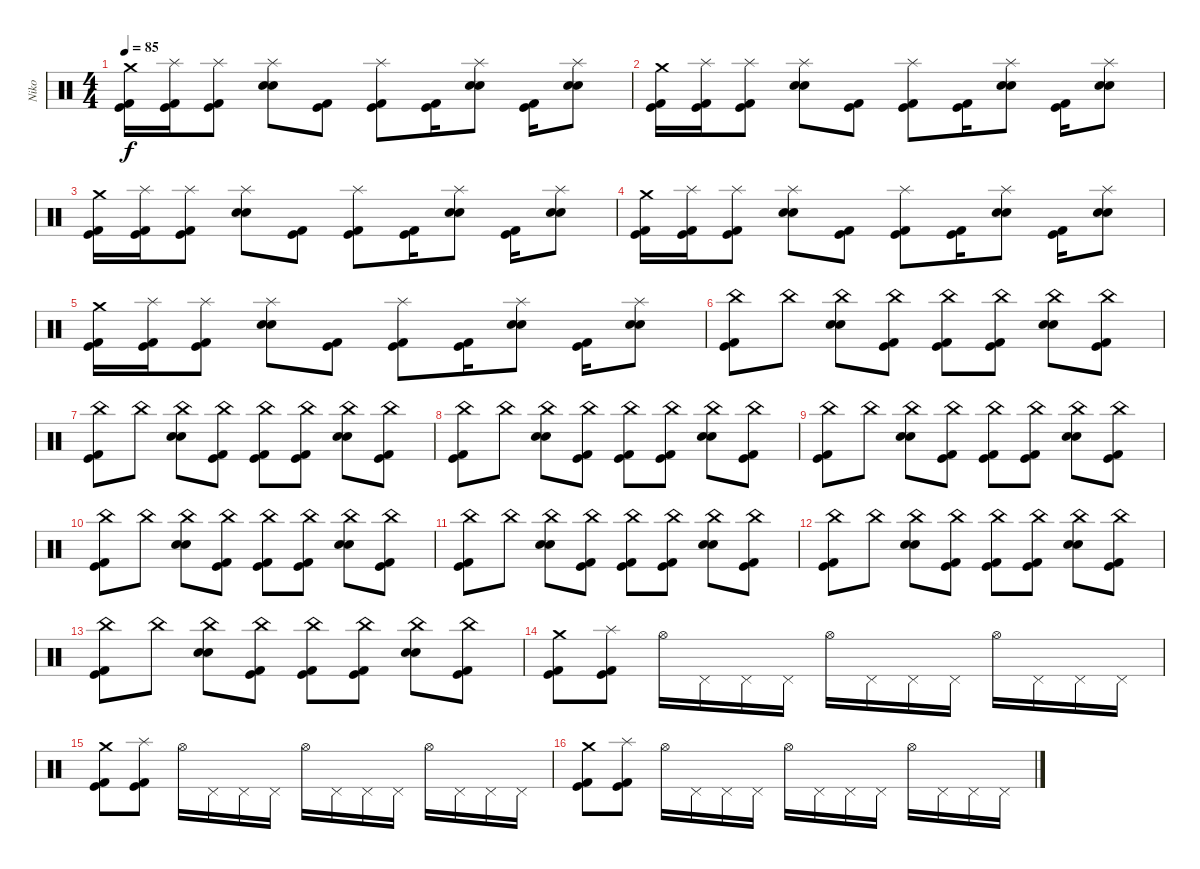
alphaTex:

\track ("Niko" "Niko") {instrument percussion}
\staff {score}
\articulation defaults
\ts (4 4)
\tempo 85
\clef neutral
\ks c
("Crash medium (hit)" "Kick (hit) 2" "Kick (hit)").16{dy f} ("Splash (hit)" "Kick (hit)" "Kick (hit) 2").16 ("Splash (hit)" "Kick (hit) 2" "Kick (hit)").8 ("Splash (hit)" "Electric Snare (hit)" "Electric Snare (hit)").8 ("Kick (hit) 2" "Kick (hit)").8 ("Splash (hit)" "Kick (hit)" "Kick (hit) 2").8 ("Kick (hit) 2" "Kick (hit)").16 ("Splash (hit)" "Electric Snare (hit)" "Electric Snare (hit)").8 ("Kick (hit) 2" "Kick (hit)").16 ("Splash (hit)" "Electric Snare (hit)" "Electric Snare (hit)").8 |
("Crash medium (hit)" "Kick (hit) 2" "Kick (hit)").16 ("Splash (hit)" "Kick (hit)" "Kick (hit) 2").16 ("Splash (hit)" "Kick (hit) 2" "Kick (hit)").8 ("Splash (hit)" "Electric Snare (hit)" "Electric Snare (hit)").8 ("Kick (hit) 2" "Kick (hit)").8 ("Splash (hit)" "Kick (hit)" "Kick (hit) 2").8 ("Kick (hit) 2" "Kick (hit)").16 ("Splash (hit)" "Electric Snare (hit)" "Electric Snare (hit)").8 ("Kick (hit) 2" "Kick (hit)").16 ("Splash (hit)" "Electric Snare (hit)" "Electric Snare (hit)").8 |
("Crash medium (hit)" "Kick (hit) 2" "Kick (hit)").16 ("Splash (hit)" "Kick (hit)" "Kick (hit) 2").16 ("Splash (hit)" "Kick (hit) 2" "Kick (hit)").8 ("Splash (hit)" "Electric Snare (hit)" "Electric Snare (hit)").8 ("Kick (hit) 2" "Kick (hit)").8 ("Splash (hit)" "Kick (hit)" "Kick (hit) 2").8 ("Kick (hit) 2" "Kick (hit)").16 ("Splash (hit)" "Electric Snare (hit)" "Electric Snare (hit)").8 ("Kick (hit) 2" "Kick (hit)").16 ("Splash (hit)" "Electric Snare (hit)" "Electric Snare (hit)").8 |
("Crash medium (hit)" "Kick (hit) 2" "Kick (hit)").16 ("Splash (hit)" "Kick (hit)" "Kick (hit) 2").16 ("Splash (hit)" "Kick (hit) 2" "Kick (hit)").8 ("Splash (hit)" "Electric Snare (hit)" "Electric Snare (hit)").8 ("Kick (hit) 2" "Kick (hit)").8 ("Splash (hit)" "Kick (hit)" "Kick (hit) 2").8 ("Kick (hit) 2" "Kick (hit)").16 ("Splash (hit)" "Electric Snare (hit)" "Electric Snare (hit)").8 ("Kick (hit) 2" "Kick (hit)").16 ("Splash (hit)" "Electric Snare (hit)" "Electric Snare (hit)").8 |
("Crash medium (hit)" "Kick (hit) 2" "Kick (hit)").16 ("Splash (hit)" "Kick (hit)" "Kick (hit) 2").16 ("Splash (hit)" "Kick (hit) 2" "Kick (hit)").8 ("Splash (hit)" "Electric Snare (hit)" "Electric Snare (hit)").8 ("Kick (hit) 2" "Kick (hit)").8 ("Splash (hit)" "Kick (hit)" "Kick (hit) 2").8 ("Kick (hit) 2" "Kick (hit)").16 ("Splash (hit)" "Electric Snare (hit)" "Electric Snare (hit)").8 ("Kick (hit) 2" "Kick (hit)").16 ("Splash (hit)" "Electric Snare (hit)" "Electric Snare (hit)").8 |
("China (hit)" "Kick (hit) 2" "Kick (hit)").8 "China (hit)".8 ("China (hit)" "Electric Snare (hit)" "Electric Snare (hit)").8 ("China (hit)" "Kick (hit) 2" "Kick (hit)").8 ("China (hit)" "Kick (hit) 2" "Kick (hit)").8 ("China (hit)" "Kick (hit)" "Kick (hit) 2").8 ("China (hit)" "Electric Snare (hit)" "Electric Snare (hit)").8 ("China (hit)" "Kick (hit)" "Kick (hit) 2").8 |
("China (hit)" "Kick (hit) 2" "Kick (hit)").8 "China (hit)".8 ("China (hit)" "Electric Snare (hit)" "Electric Snare (hit)").8 ("China (hit)" "Kick (hit) 2" "Kick (hit)").8 ("China (hit)" "Kick (hit) 2" "Kick (hit)").8 ("China (hit)" "Kick (hit)" "Kick (hit) 2").8 ("China (hit)" "Electric Snare (hit)" "Electric Snare (hit)").8 ("China (hit)" "Kick (hit)" "Kick (hit) 2").8 |
("China (hit)" "Kick (hit) 2" "Kick (hit)").8 "China (hit)".8 ("China (hit)" "Electric Snare (hit)" "Electric Snare (hit)").8 ("China (hit)" "Kick (hit) 2" "Kick (hit)").8 ("China (hit)" "Kick (hit) 2" "Kick (hit)").8 ("China (hit)" "Kick (hit)" "Kick (hit) 2").8 ("China (hit)" "Electric Snare (hit)" "Electric Snare (hit)").8 ("China (hit)" "Kick (hit)" "Kick (hit) 2").8 |
("China (hit)" "Kick (hit) 2" "Kick (hit)").8 "China (hit)".8 ("China (hit)" "Electric Snare (hit)" "Electric Snare (hit)").8 ("China (hit)" "Kick (hit) 2" "Kick (hit)").8 ("China (hit)" "Kick (hit) 2" "Kick (hit)").8 ("China (hit)" "Kick (hit)" "Kick (hit) 2").8 ("China (hit)" "Electric Snare (hit)" "Electric Snare (hit)").8 ("China (hit)" "Kick (hit)" "Kick (hit) 2").8 |
("China (hit)" "Kick (hit) 2" "Kick (hit)").8 "China (hit)".8 ("China (hit)" "Electric Snare (hit)" "Electric Snare (hit)").8 ("China (hit)" "Kick (hit) 2" "Kick (hit)").8 ("China (hit)" "Kick (hit) 2" "Kick (hit)").8 ("China (hit)" "Kick (hit)" "Kick (hit) 2").8 ("China (hit)" "Electric Snare (hit)" "Electric Snare (hit)").8 ("China (hit)" "Kick (hit)" "Kick (hit) 2").8 |
("China (hit)" "Kick (hit) 2" "Kick (hit)").8 "China (hit)".8 ("China (hit)" "Electric Snare (hit)" "Electric Snare (hit)").8 ("China (hit)" "Kick (hit) 2" "Kick (hit)").8 ("China (hit)" "Kick (hit) 2" "Kick (hit)").8 ("China (hit)" "Kick (hit)" "Kick (hit) 2").8 ("China (hit)" "Electric Snare (hit)" "Electric Snare (hit)").8 ("China (hit)" "Kick (hit)" "Kick (hit) 2").8 |
("China (hit)" "Kick (hit) 2" "Kick (hit)").8 "China (hit)".8 ("China (hit)" "Electric Snare (hit)" "Electric Snare (hit)").8 ("China (hit)" "Kick (hit) 2" "Kick (hit)").8 ("China (hit)" "Kick (hit) 2" "Kick (hit)").8 ("China (hit)" "Kick (hit)" "Kick (hit) 2").8 ("China (hit)" "Electric Snare (hit)" "Electric Snare (hit)").8 ("China (hit)" "Kick (hit)" "Kick (hit) 2").8 |
("China (hit)" "Kick (hit) 2" "Kick (hit)").8 "China (hit)".8 ("China (hit)" "Electric Snare (hit)" "Electric Snare (hit)").8 ("China (hit)" "Kick (hit) 2" "Kick (hit)").8 ("China (hit)" "Kick (hit) 2" "Kick (hit)").8 ("China (hit)" "Kick (hit)" "Kick (hit) 2").8 ("China (hit)" "Electric Snare (hit)" "Electric Snare (hit)").8 ("China (hit)" "Kick (hit)" "Kick (hit) 2").8 |
("Crash medium (hit)" "Kick (hit) 2" "Kick (hit)").8 ("Splash (hit)" "Kick (hit)" "Kick (hit) 2").8 "Hi-Hat (open)".16 "Pedal Hi-Hat (hit)".16 "Pedal Hi-Hat (hit)".16 "Pedal Hi-Hat (hit)".16 "Hi-Hat (open)".16 "Pedal Hi-Hat (hit)".16 "Pedal Hi-Hat (hit)".16 "Pedal Hi-Hat (hit)".16 "Hi-Hat (open)".16 "Pedal Hi-Hat (hit)".16 "Pedal Hi-Hat (hit)".16 "Pedal Hi-Hat (hit)".16 |
("Crash medium (hit)" "Kick (hit) 2" "Kick (hit)").8 ("Splash (hit)" "Kick (hit)" "Kick (hit) 2").8 "Hi-Hat (open)".16 "Pedal Hi-Hat (hit)".16 "Pedal Hi-Hat (hit)".16 "Pedal Hi-Hat (hit)".16 "Hi-Hat (open)".16 "Pedal Hi-Hat (hit)".16 "Pedal Hi-Hat (hit)".16 "Pedal Hi-Hat (hit)".16 "Hi-Hat (open)".16 "Pedal Hi-Hat (hit)".16 "Pedal Hi-Hat (hit)".16 "Pedal Hi-Hat (hit)".16 |
("Crash medium (hit)" "Kick (hit) 2" "Kick (hit)").8 ("Splash (hit)" "Kick (hit)" "Kick (hit) 2").8 "Hi-Hat (open)".16 "Pedal Hi-Hat (hit)".16 "Pedal Hi-Hat (hit)".16 "Pedal Hi-Hat (hit)".16 "Hi-Hat (open)".16 "Pedal Hi-Hat (hit)".16 "Pedal Hi-Hat (hit)".16 "Pedal Hi-Hat (hit)".16 "Hi-Hat (open)".16 "Pedal Hi-Hat (hit)".16 "Pedal Hi-Hat (hit)".16 "Pedal Hi-Hat (hit)".16
